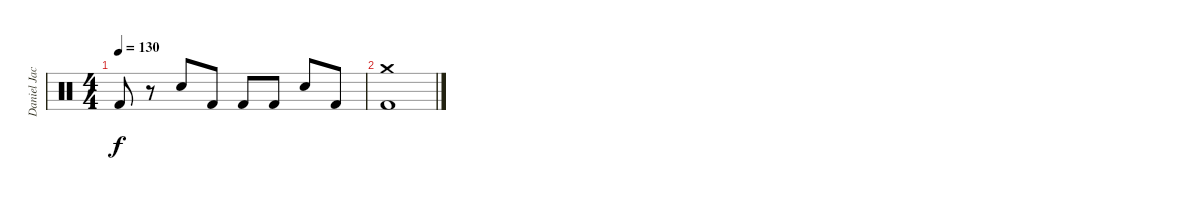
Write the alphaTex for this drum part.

\track ("Daniel Jacques Louis " "Daniel Jac") {instrument percussion}
\staff {score}
\articulation defaults
\ts (4 4)
\tempo 130
\clef neutral
\ks c "Kick (hit) 2".8{dy f}
r.8 "Electric Snare (hit)".8 "Kick (hit) 2".8 "Kick (hit) 2".8 "Kick (hit) 2".8 "Electric Snare (hit)".8 "Kick (hit) 2".8 |
("Crash medium (hit)" "Kick (hit) 2").1
